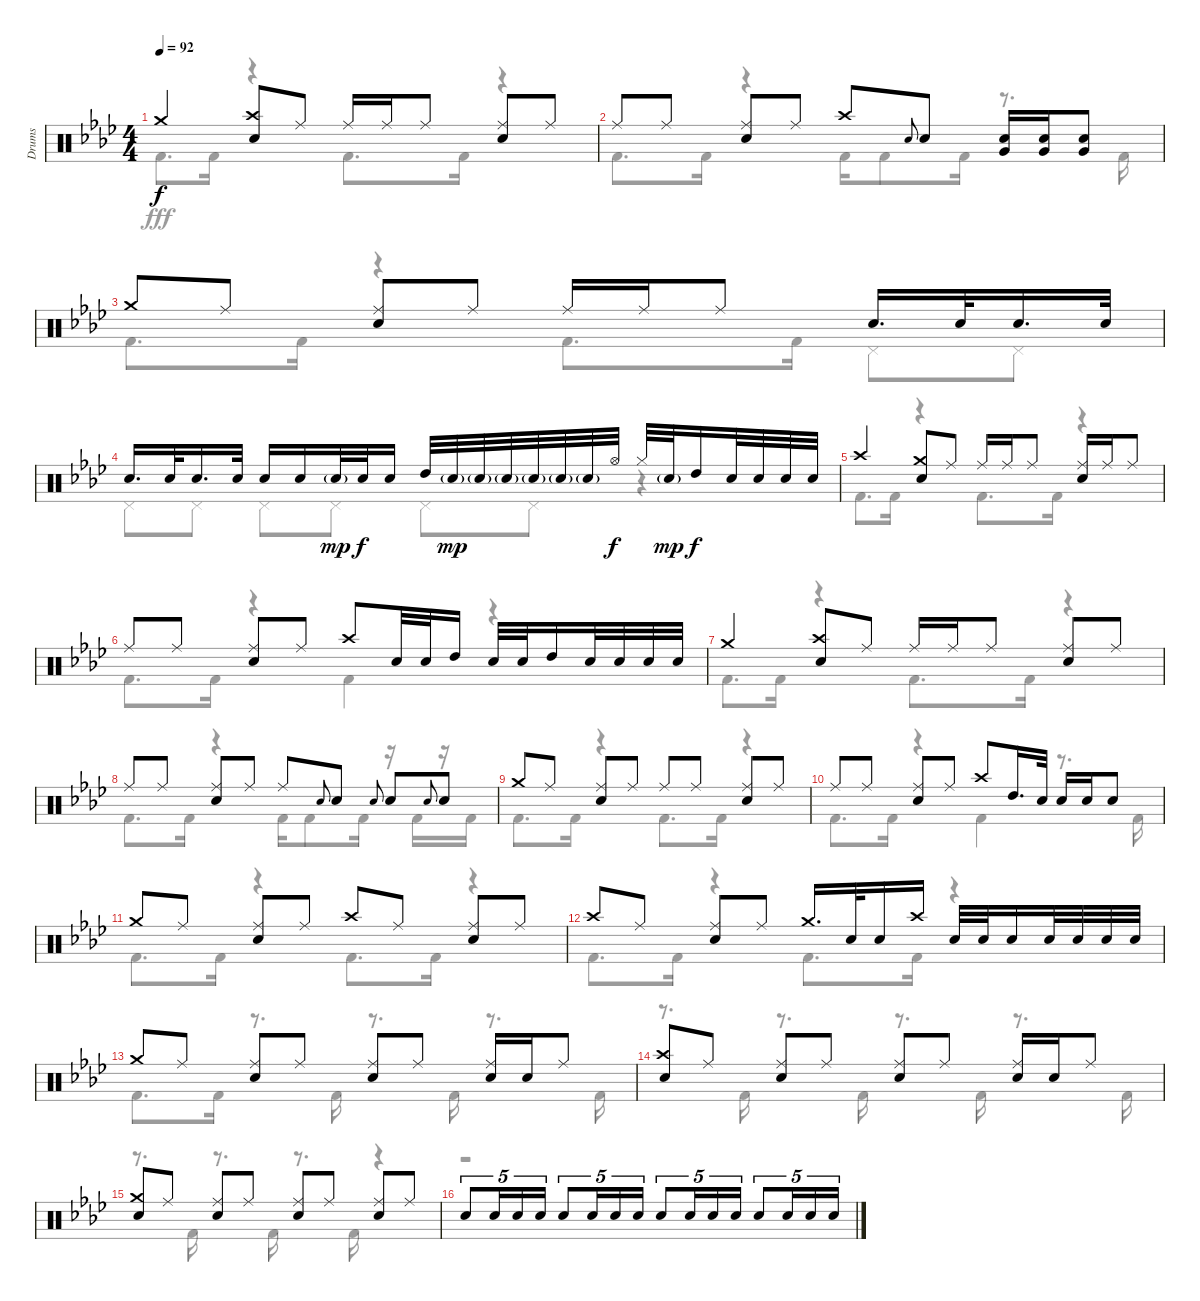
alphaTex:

\track ("Drums" "Drums") {instrument percussion}
\staff {score}
\articulation defaults
\voice
\ts (4 4)
\tempo 92
\clef neutral
\ks ab "Crash medium (hit)".4{dy f}
("Crash high (hit)" "Snare (hit) 2").8 "Ride (middle)".8 "Ride (middle)".16 "Ride (middle)".16 "Ride (middle)".8 ("Ride (middle)" "Snare (hit) 2").8 "Ride (middle)".8 |
"Ride (middle)".8 "Ride (middle)".8 ("Ride (middle)" "Snare (hit) 2").8 "Ride (middle)".8 "Crash high (hit)".8 "Snare (hit) 2".8{gr onbeat} "Snare (hit) 2".8 ("Snare (hit) 2" "Very Low Tom (hit)").16 ("Snare (hit) 2" "Very Low Tom (hit)").16 ("Snare (hit) 2" "Very Low Tom (hit)").8 |
"Crash medium (hit)".8 "Ride (middle)".8 ("Ride (middle)" "Snare (hit) 2").8 "Ride (middle)".8 "Ride (middle)".16 "Ride (middle)".16 "Ride (middle)".8 "Snare (hit) 2".16{d} "Snare (hit) 2".32 "Snare (hit) 2".16{d} "Snare (hit) 2".32 |
"Snare (hit) 2".16{d} "Snare (hit) 2".32 "Snare (hit) 2".16{d} "Snare (hit) 2".32 "Snare (hit) 2".16 "Snare (hit) 2".16 "Snare (hit) 2"{g}.32{dy mp} "Snare (hit) 2".32{dy f} "Snare (hit) 2".16 "High Tom (hit)".32 "Snare (hit) 2"{g}.32{dy mp} "Snare (hit) 2"{g}.32 "Snare (hit) 2"{g}.32 "Snare (hit) 2"{g}.32 "Snare (hit) 2"{g}.32 "Snare (hit) 2"{g}.32 "Hi-Hat (open)".32{dy f} "Hi-Hat (closed)".32 "Snare (hit) 2"{g}.32{dy mp} "High Tom (hit)".16{dy f} "Snare (hit) 2".32 "Snare (hit) 2".32 "Snare (hit) 2".32 "Snare (hit) 2".32 |
"Crash high (hit)".4 ("Crash medium (hit)" "Snare (hit) 2").8 "Ride (middle)".8 "Ride (middle)".16 "Ride (middle)".16 "Ride (middle)".8 ("Ride (middle)" "Snare (hit) 2").16 "Ride (middle)".16 "Ride (middle)".8 |
"Ride (middle)".8 "Ride (middle)".8 ("Ride (middle)" "Snare (hit) 2").8 "Ride (middle)".8 "Crash high (hit)".8 "Snare (hit) 2".32 "Snare (hit) 2".32 "High Tom (hit)".16 "Snare (hit) 2".32 "Snare (hit) 2".32 "High Tom (hit)".16 "Snare (hit) 2".32 "Snare (hit) 2".32 "Snare (hit) 2".32 "Snare (hit) 2".32 |
"Crash medium (hit)".4 ("Crash high (hit)" "Snare (hit) 2").8 "Ride (middle)".8 "Ride (middle)".16 "Ride (middle)".16 "Ride (middle)".8 ("Ride (middle)" "Snare (hit) 2").8 "Ride (middle)".8 |
"Ride (middle)".8 "Ride (middle)".8 ("Ride (middle)" "Snare (hit) 2").8 "Ride (middle)".8 "Ride (middle)".8 "Snare (hit) 2".8{gr onbeat} "Snare (hit) 2".8 "Snare (hit) 2".8{gr onbeat} "Snare (hit) 2".8 "Snare (hit) 2".8{gr onbeat} "Snare (hit) 2".8 |
"Crash medium (hit)".8 "Ride (middle)".8 ("Ride (middle)" "Snare (hit) 2").8 "Ride (middle)".8 "Ride (middle)".8 "Ride (middle)".8 ("Ride (middle)" "Snare (hit) 2").8 "Ride (middle)".8 |
"Ride (middle)".8 "Ride (middle)".8 ("Ride (middle)" "Snare (hit) 2").8 "Ride (middle)".8 "Crash high (hit)".8 "High Tom (hit)".16{d} "Snare (hit) 2".32 "Snare (hit) 2".16 "Snare (hit) 2".16 "Snare (hit) 2".8 |
"Crash medium (hit)".8 "Ride (middle)".8 ("Ride (middle)" "Snare (hit) 2").8 "Ride (middle)".8 "Crash high (hit)".8 "Ride (middle)".8 ("Ride (middle)" "Snare (hit) 2").8 "Ride (middle)".8 |
"Crash high (hit)".8 "Ride (middle)".8 ("Ride (middle)" "Snare (hit) 2").8 "Ride (middle)".8 "Crash medium (hit)".16{d} "Snare (hit) 2".32 "Snare (hit) 2".16 "Crash high (hit)".16 "Snare (hit) 2".32 "Snare (hit) 2".32 "Snare (hit) 2".16 "Snare (hit) 2".32 "Snare (hit) 2".32 "Snare (hit) 2".32 "Snare (hit) 2".32 |
"Crash medium (hit)".8 "Ride (middle)".8 ("Ride (middle)" "Snare (hit) 2").8 "Ride (middle)".8 ("Ride (middle)" "Snare (hit) 2").8 "Ride (middle)".8 ("Ride (middle)" "Snare (hit) 2").16 "Snare (hit) 2".16 "Ride (middle)".8 |
("Crash high (hit)" "Snare (hit) 2").8 "Ride (middle)".8 ("Ride (middle)" "Snare (hit) 2").8 "Ride (middle)".8 ("Ride (middle)" "Snare (hit) 2").8 "Ride (middle)".8 ("Ride (middle)" "Snare (hit) 2").16 "Snare (hit) 2".16 "Ride (middle)".8 |
("Crash medium (hit)" "Snare (hit) 2").8 "Ride (middle)".8 ("Ride (middle)" "Snare (hit) 2").8 "Ride (middle)".8 ("Ride (middle)" "Snare (hit) 2").8 "Ride (middle)".8 ("Ride (middle)" "Snare (hit) 2").8 "Ride (middle)".8 |
"Snare (hit) 2".8{tu (5 4)} "Snare (hit) 2".16{tu (5 4)} "Snare (hit) 2".16{tu (5 4)} "Snare (hit) 2".16{tu (5 4)} "Snare (hit) 2".8{tu (5 4)} "Snare (hit) 2".16{tu (5 4)} "Snare (hit) 2".16{tu (5 4)} "Snare (hit) 2".16{tu (5 4)} "Snare (hit) 2".8{tu (5 4)} "Snare (hit) 2".16{tu (5 4)} "Snare (hit) 2".16{tu (5 4)} "Snare (hit) 2".16{tu (5 4)} "Snare (hit) 2".8{tu (5 4)} "Snare (hit) 2".16{tu (5 4)} "Snare (hit) 2".16{tu (5 4)} "Snare (hit) 2".16{tu (5 4)}
\voice
\clef neutral
\ottava regular
\simile none
\ks ab "Kick (hit) 2".8{d dy fff} "Kick (hit) 2".16
r.4 "Kick (hit) 2".8{d} "Kick (hit) 2".16 r.4 |
"Kick (hit) 2".8{d} "Kick (hit) 2".16 r.4 "Kick (hit) 2".16 "Kick (hit) 2".8 "Kick (hit) 2".16 r.8{d} "Kick (hit) 2".16 |
"Kick (hit) 2".8{d} "Kick (hit) 2".16 r.4 "Kick (hit) 2".8{d} "Kick (hit) 2".16 "Pedal Hi-Hat (hit)".8 "Pedal Hi-Hat (hit)".8 |
"Pedal Hi-Hat (hit)".8 "Pedal Hi-Hat (hit)".8 "Pedal Hi-Hat (hit)".8 "Pedal Hi-Hat (hit)".8 "Pedal Hi-Hat (hit)".8 "Pedal Hi-Hat (hit)".8 r.4 |
"Kick (hit) 2".8{d} "Kick (hit) 2".16 r.4 "Kick (hit) 2".8{d} "Kick (hit) 2".16 r.4 |
"Kick (hit) 2".8{d} "Kick (hit) 2".16 r.4 "Kick (hit) 2".4 r.4 |
"Kick (hit) 2".8{d} "Kick (hit) 2".16 r.4 "Kick (hit) 2".8{d} "Kick (hit) 2".16 r.4 |
"Kick (hit) 2".8{d} "Kick (hit) 2".16 r.4 "Kick (hit) 2".16 "Kick (hit) 2".8 "Kick (hit) 2".16 r.16 "Kick (hit) 2".16 r.16 "Kick (hit) 2".16 |
"Kick (hit) 2".8{d} "Kick (hit) 2".16 r.4 "Kick (hit) 2".8{d} "Kick (hit) 2".16 r.4 |
"Kick (hit) 2".8{d} "Kick (hit) 2".16 r.4 "Kick (hit) 2".4 r.8{d} "Kick (hit) 2".16 |
"Kick (hit) 2".8{d} "Kick (hit) 2".16 r.4 "Kick (hit) 2".8{d} "Kick (hit) 2".16 r.4 |
"Kick (hit) 2".8{d} "Kick (hit) 2".16 r.4 "Kick (hit) 2".8{d} "Kick (hit) 2".16 r.4 |
"Kick (hit) 2".8{d} "Kick (hit) 2".16 r.8{d} "Kick (hit) 2".16 r.8{d} "Kick (hit) 2".16 r.8{d} "Kick (hit) 2".16 |
r.8{d} "Kick (hit) 2".16 r.8{d} "Kick (hit) 2".16 r.8{d} "Kick (hit) 2".16 r.8{d} "Kick (hit) 2".16 |
r.8{d} "Kick (hit) 2".16 r.8{d} "Kick (hit) 2".16 r.8{d} "Kick (hit) 2".16 r.4 |
r.1
